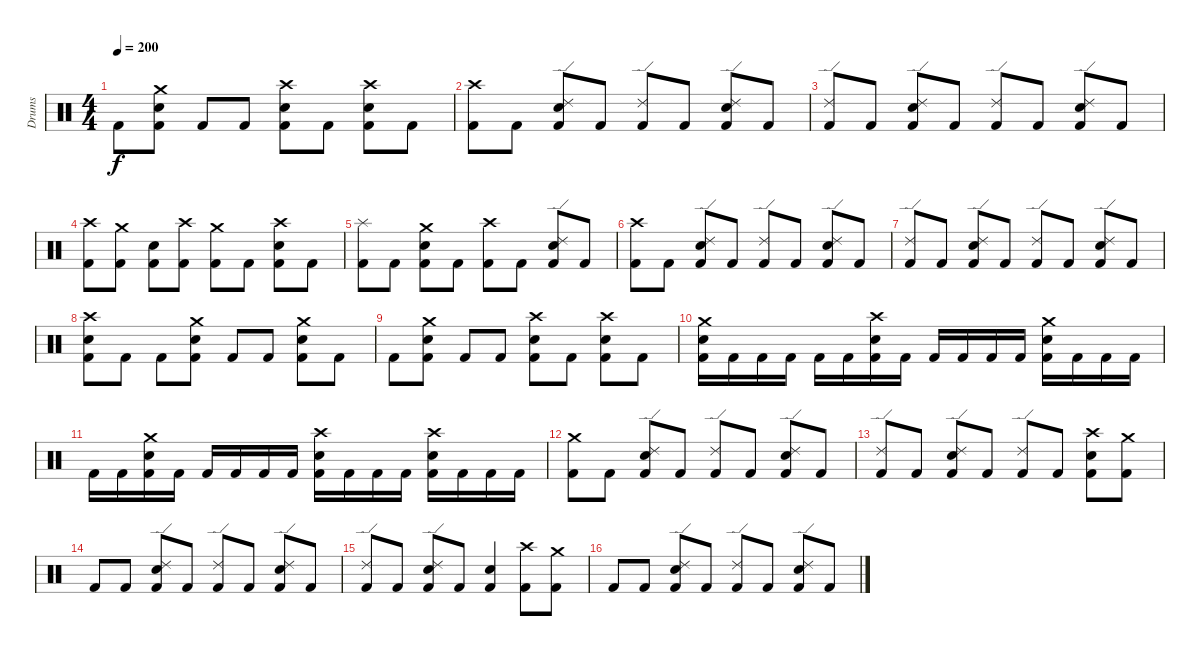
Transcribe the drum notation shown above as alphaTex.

\track ("Drums" "Drums") {instrument percussion}
\staff {score}
\articulation defaults
\ts (4 4)
\tempo 200
\clef neutral
\ks c "Kick (hit) 2".8{dy f}
("Kick (hit) 2" "Electric Snare (hit)" "Crash medium (hit)").8 "Kick (hit) 2".8 "Kick (hit) 2".8 ("Kick (hit) 2" "Electric Snare (hit)" "Crash high (hit)").8 "Kick (hit) 2".8 ("Kick (hit) 2" "Electric Snare (hit)" "Crash high (hit)").8 "Kick (hit) 2".8 |
\section ("" "")
("Kick (hit) 2" "Crash high (hit)").8 "Kick (hit) 2".8 ("Kick (hit) 2" "Electric Snare (hit)" "Ride (edge) 2").8 "Kick (hit) 2".8 ("Kick (hit) 2" "Ride (edge) 2").8 "Kick (hit) 2".8 ("Kick (hit) 2" "Electric Snare (hit)" "Ride (edge) 2").8 "Kick (hit) 2".8 |
("Kick (hit) 2" "Ride (edge) 2").8 "Kick (hit) 2".8 ("Kick (hit) 2" "Electric Snare (hit)" "Ride (edge) 2").8 "Kick (hit) 2".8 ("Kick (hit) 2" "Ride (edge) 2").8 "Kick (hit) 2".8 ("Kick (hit) 2" "Electric Snare (hit)" "Ride (edge) 2").8 "Kick (hit) 2".8 |
("Kick (hit) 2" "Crash high (hit)").8 ("Kick (hit) 2" "Crash medium (hit)").8 ("Kick (hit) 2" "Electric Snare (hit)").8 ("Kick (hit) 2" "Crash high (hit)").8 ("Kick (hit) 2" "Crash medium (hit)").8 "Kick (hit) 2".8 ("Kick (hit) 2" "Electric Snare (hit)" "Crash high (hit)").8 "Kick (hit) 2".8 |
("Kick (hit) 2" "Splash (hit)").8 "Kick (hit) 2".8 ("Kick (hit) 2" "Electric Snare (hit)" "Crash medium (hit)").8 "Kick (hit) 2".8 ("Kick (hit) 2" "Crash high (hit)").8 "Kick (hit) 2".8 ("Kick (hit) 2" "Electric Snare (hit)" "Ride (edge) 2").8 "Kick (hit) 2".8 |
("Kick (hit) 2" "Crash high (hit)").8 "Kick (hit) 2".8 ("Kick (hit) 2" "Electric Snare (hit)" "Ride (edge) 2").8 "Kick (hit) 2".8 ("Kick (hit) 2" "Ride (edge) 2").8 "Kick (hit) 2".8 ("Kick (hit) 2" "Electric Snare (hit)" "Ride (edge) 2").8 "Kick (hit) 2".8 |
("Kick (hit) 2" "Ride (edge) 2").8 "Kick (hit) 2".8 ("Kick (hit) 2" "Electric Snare (hit)" "Ride (edge) 2").8 "Kick (hit) 2".8 ("Kick (hit) 2" "Ride (edge) 2").8 "Kick (hit) 2".8 ("Kick (hit) 2" "Electric Snare (hit)" "Ride (edge) 2").8 "Kick (hit) 2".8 |
("Kick (hit) 2" "Electric Snare (hit)" "Crash high (hit)").8 "Kick (hit) 2".8 "Kick (hit) 2".8 ("Kick (hit) 2" "Electric Snare (hit)" "Crash medium (hit)").8 "Kick (hit) 2".8 "Kick (hit) 2".8 ("Kick (hit) 2" "Electric Snare (hit)" "Crash medium (hit)").8 "Kick (hit) 2".8 |
"Kick (hit) 2".8 ("Kick (hit) 2" "Electric Snare (hit)" "Crash medium (hit)").8 "Kick (hit) 2".8 "Kick (hit) 2".8 ("Kick (hit) 2" "Electric Snare (hit)" "Crash high (hit)").8 "Kick (hit) 2".8 ("Kick (hit) 2" "Electric Snare (hit)" "Crash high (hit)").8 "Kick (hit) 2".8 |
("Kick (hit) 2" "Electric Snare (hit)" "Crash medium (hit)").16 "Kick (hit) 2".16 "Kick (hit) 2".16 "Kick (hit) 2".16 "Kick (hit) 2".16 "Kick (hit) 2".16 ("Kick (hit) 2" "Electric Snare (hit)" "Crash high (hit)").16 "Kick (hit) 2".16 "Kick (hit) 2".16 "Kick (hit) 2".16 "Kick (hit) 2".16 "Kick (hit) 2".16 ("Kick (hit) 2" "Electric Snare (hit)" "Crash medium (hit)").16 "Kick (hit) 2".16 "Kick (hit) 2".16 "Kick (hit) 2".16 |
"Kick (hit) 2".16 "Kick (hit) 2".16 ("Kick (hit) 2" "Electric Snare (hit)" "Crash medium (hit)").16 "Kick (hit) 2".16 "Kick (hit) 2".16 "Kick (hit) 2".16 "Kick (hit) 2".16 "Kick (hit) 2".16 ("Kick (hit) 2" "Electric Snare (hit)" "Crash high (hit)").16 "Kick (hit) 2".16 "Kick (hit) 2".16 "Kick (hit) 2".16 ("Kick (hit) 2" "Electric Snare (hit)" "Crash high (hit)").16 "Kick (hit) 2".16 "Kick (hit) 2".16 "Kick (hit) 2".16 |
\section ("" "")
("Kick (hit) 2" "Crash medium (hit)").8 "Kick (hit) 2".8 ("Kick (hit) 2" "Electric Snare (hit)" "Ride (edge) 2").8 "Kick (hit) 2".8 ("Kick (hit) 2" "Ride (edge) 2").8 "Kick (hit) 2".8 ("Kick (hit) 2" "Electric Snare (hit)" "Ride (edge) 2").8 "Kick (hit) 2".8 |
("Kick (hit) 2" "Ride (edge) 2").8 "Kick (hit) 2".8 ("Kick (hit) 2" "Electric Snare (hit)" "Ride (edge) 2").8 "Kick (hit) 2".8 ("Kick (hit) 2" "Ride (edge) 2").8 "Kick (hit) 2".8 ("Kick (hit) 2" "Electric Snare (hit)" "Crash high (hit)").8 ("Kick (hit) 2" "Crash medium (hit)").8 |
"Kick (hit) 2".8 "Kick (hit) 2".8 ("Kick (hit) 2" "Electric Snare (hit)" "Ride (edge) 2").8 "Kick (hit) 2".8 ("Kick (hit) 2" "Ride (edge) 2").8 "Kick (hit) 2".8 ("Kick (hit) 2" "Electric Snare (hit)" "Ride (edge) 2").8 "Kick (hit) 2".8 |
("Kick (hit) 2" "Ride (edge) 2").8 "Kick (hit) 2".8 ("Kick (hit) 2" "Electric Snare (hit)" "Ride (edge) 2").8 "Kick (hit) 2".8 ("Kick (hit) 2" "Electric Snare (hit)").4 ("Kick (hit) 2" "Crash high (hit)").8 ("Kick (hit) 2" "Crash medium (hit)").8 |
"Kick (hit) 2".8 "Kick (hit) 2".8 ("Kick (hit) 2" "Electric Snare (hit)" "Ride (edge) 2").8 "Kick (hit) 2".8 ("Kick (hit) 2" "Ride (edge) 2").8 "Kick (hit) 2".8 ("Kick (hit) 2" "Electric Snare (hit)" "Ride (edge) 2").8 "Kick (hit) 2".8
